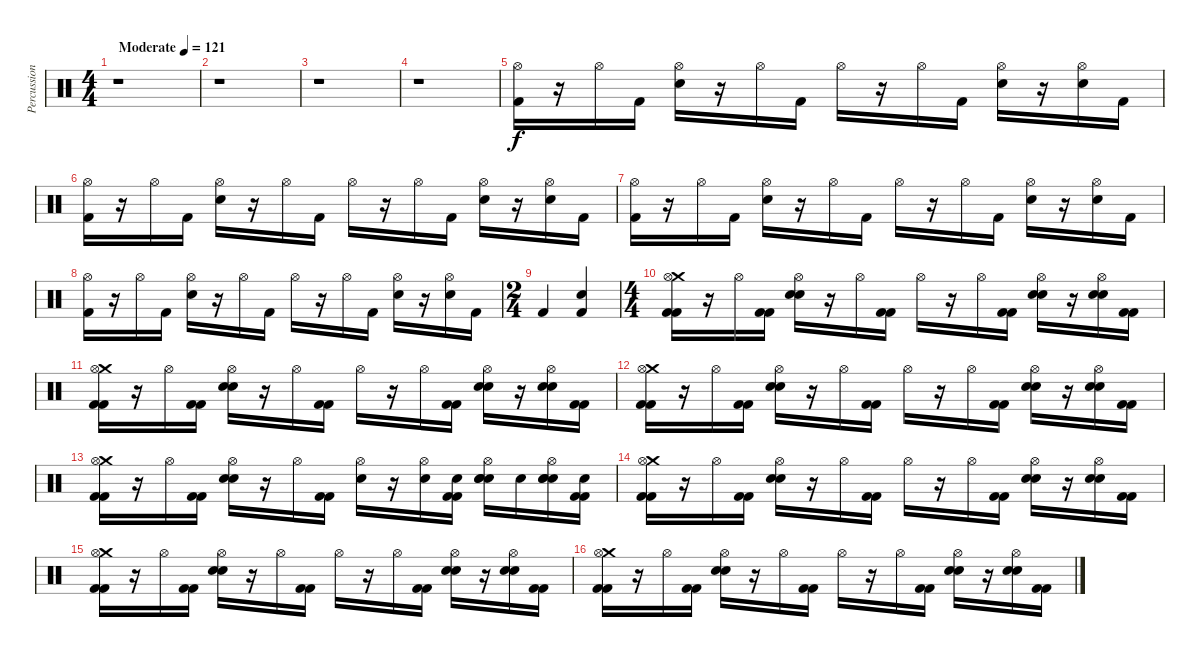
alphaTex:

\track ("Percussion- Mike" "Percussion") {instrument percussion}
\staff {score}
\articulation defaults
\ts (4 4)
\tempo (121 "Moderate")
\clef neutral
\ks c
r.1{dy f} |
r.1 |
r.1 |
r.1 |
("Kick (hit) 2" "Hi-Hat (open)").16 r.16 "Hi-Hat (open)".16 "Kick (hit) 2".16 ("Snare (hit) 2" "Hi-Hat (open)").16 r.16 "Hi-Hat (open)".16 "Kick (hit) 2".16 "Hi-Hat (open)".16 r.16 "Hi-Hat (open)".16 "Kick (hit) 2".16 ("Snare (hit) 2" "Hi-Hat (open)").16 r.16 ("Electric Snare (hit)" "Hi-Hat (open)").16 "Kick (hit) 2".16 |
("Kick (hit) 2" "Hi-Hat (open)").16 r.16 "Hi-Hat (open)".16 "Kick (hit) 2".16 ("Snare (hit) 2" "Hi-Hat (open)").16 r.16 "Hi-Hat (open)".16 "Kick (hit) 2".16 "Hi-Hat (open)".16 r.16 "Hi-Hat (open)".16 "Kick (hit) 2".16 ("Snare (hit) 2" "Hi-Hat (open)").16 r.16 ("Electric Snare (hit)" "Hi-Hat (open)").16 "Kick (hit) 2".16 |
("Kick (hit) 2" "Hi-Hat (open)").16 r.16 "Hi-Hat (open)".16 "Kick (hit) 2".16 ("Snare (hit) 2" "Hi-Hat (open)").16 r.16 "Hi-Hat (open)".16 "Kick (hit) 2".16 "Hi-Hat (open)".16 r.16 "Hi-Hat (open)".16 "Kick (hit) 2".16 ("Snare (hit) 2" "Hi-Hat (open)").16 r.16 ("Electric Snare (hit)" "Hi-Hat (open)").16 "Kick (hit) 2".16 |
("Kick (hit) 2" "Hi-Hat (open)").16 r.16 "Hi-Hat (open)".16 "Kick (hit) 2".16 ("Snare (hit) 2" "Hi-Hat (open)").16 r.16 "Hi-Hat (open)".16 "Kick (hit) 2".16 "Hi-Hat (open)".16 r.16 "Hi-Hat (open)".16 "Kick (hit) 2".16 ("Snare (hit) 2" "Hi-Hat (open)").16 r.16 ("Electric Snare (hit)" "Hi-Hat (open)").16 "Kick (hit) 2".16 |
\ts (2 4)
"Kick (hit) 2".4 ("Snare (hit) 2" "Kick (hit) 2").4 |
\ts (4 4)
("Crash medium (hit)" "Kick (hit) 2" "Kick (hit) 2" "Hi-Hat (open)").16 r.16 "Hi-Hat (open)".16 ("Kick (hit) 2" "Kick (hit) 2").16 ("Snare (hit) 2" "Snare (hit) 2" "Hi-Hat (open)").16 r.16 "Hi-Hat (open)".16 ("Kick (hit) 2" "Kick (hit) 2").16 "Hi-Hat (open)".16 r.16 "Hi-Hat (open)".16 ("Kick (hit) 2" "Kick (hit) 2").16 ("Snare (hit) 2" "Snare (hit) 2" "Hi-Hat (open)").16 r.16 ("Electric Snare (hit)" "Electric Snare (hit)" "Hi-Hat (open)").16 ("Kick (hit) 2" "Kick (hit) 2").16 |
("Crash medium (hit)" "Kick (hit) 2" "Kick (hit) 2" "Hi-Hat (open)").16 r.16 "Hi-Hat (open)".16 ("Kick (hit) 2" "Kick (hit) 2").16 ("Snare (hit) 2" "Snare (hit) 2" "Hi-Hat (open)").16 r.16 "Hi-Hat (open)".16 ("Kick (hit) 2" "Kick (hit) 2").16 "Hi-Hat (open)".16 r.16 "Hi-Hat (open)".16 ("Kick (hit) 2" "Kick (hit) 2").16 ("Snare (hit) 2" "Snare (hit) 2" "Hi-Hat (open)").16 r.16 ("Electric Snare (hit)" "Electric Snare (hit)" "Hi-Hat (open)").16 ("Kick (hit) 2" "Kick (hit) 2").16 |
("Crash medium (hit)" "Kick (hit) 2" "Kick (hit) 2" "Hi-Hat (open)").16 r.16 "Hi-Hat (open)".16 ("Kick (hit) 2" "Kick (hit) 2").16 ("Snare (hit) 2" "Snare (hit) 2" "Hi-Hat (open)").16 r.16 "Hi-Hat (open)".16 ("Kick (hit) 2" "Kick (hit) 2").16 "Hi-Hat (open)".16 r.16 "Hi-Hat (open)".16 ("Kick (hit) 2" "Kick (hit) 2").16 ("Snare (hit) 2" "Snare (hit) 2" "Hi-Hat (open)").16 r.16 ("Electric Snare (hit)" "Electric Snare (hit)" "Hi-Hat (open)").16 ("Kick (hit) 2" "Kick (hit) 2").16 |
("Crash medium (hit)" "Kick (hit) 2" "Kick (hit) 2" "Hi-Hat (open)").16 r.16 "Hi-Hat (open)".16 ("Kick (hit) 2" "Kick (hit) 2").16 ("Snare (hit) 2" "Snare (hit) 2" "Hi-Hat (open)").16 r.16 "Hi-Hat (open)".16 ("Kick (hit) 2" "Kick (hit) 2").16 ("Electric Snare (hit)" "Hi-Hat (open)").16 r.16 ("Electric Snare (hit)" "Hi-Hat (open)").16 ("Electric Snare (hit)" "Kick (hit) 2" "Kick (hit) 2").16 ("Electric Snare (hit)" "Snare (hit) 2" "Snare (hit) 2" "Hi-Hat (open)").16 "Electric Snare (hit)".16 ("Electric Snare (hit)" "Electric Snare (hit)" "Electric Snare (hit)" "Hi-Hat (open)").16 ("Electric Snare (hit)" "Kick (hit) 2" "Kick (hit) 2").16 |
("Crash medium (hit)" "Kick (hit) 2" "Kick (hit) 2" "Hi-Hat (open)").16 r.16 "Hi-Hat (open)".16 ("Kick (hit) 2" "Kick (hit) 2").16 ("Snare (hit) 2" "Snare (hit) 2" "Hi-Hat (open)").16 r.16 "Hi-Hat (open)".16 ("Kick (hit) 2" "Kick (hit) 2").16 "Hi-Hat (open)".16 r.16 "Hi-Hat (open)".16 ("Kick (hit) 2" "Kick (hit) 2").16 ("Snare (hit) 2" "Snare (hit) 2" "Hi-Hat (open)").16 r.16 ("Electric Snare (hit)" "Electric Snare (hit)" "Hi-Hat (open)").16 ("Kick (hit) 2" "Kick (hit) 2").16 |
("Crash medium (hit)" "Kick (hit) 2" "Kick (hit) 2" "Hi-Hat (open)").16 r.16 "Hi-Hat (open)".16 ("Kick (hit) 2" "Kick (hit) 2").16 ("Snare (hit) 2" "Snare (hit) 2" "Hi-Hat (open)").16 r.16 "Hi-Hat (open)".16 ("Kick (hit) 2" "Kick (hit) 2").16 "Hi-Hat (open)".16 r.16 "Hi-Hat (open)".16 ("Kick (hit) 2" "Kick (hit) 2").16 ("Snare (hit) 2" "Snare (hit) 2" "Hi-Hat (open)").16 r.16 ("Electric Snare (hit)" "Electric Snare (hit)" "Hi-Hat (open)").16 ("Kick (hit) 2" "Kick (hit) 2").16 |
("Crash medium (hit)" "Kick (hit) 2" "Kick (hit) 2" "Hi-Hat (open)").16 r.16 "Hi-Hat (open)".16 ("Kick (hit) 2" "Kick (hit) 2").16 ("Snare (hit) 2" "Snare (hit) 2" "Hi-Hat (open)").16 r.16 "Hi-Hat (open)".16 ("Kick (hit) 2" "Kick (hit) 2").16 "Hi-Hat (open)".16 r.16 "Hi-Hat (open)".16 ("Kick (hit) 2" "Kick (hit) 2").16 ("Snare (hit) 2" "Snare (hit) 2" "Hi-Hat (open)").16 r.16 ("Electric Snare (hit)" "Electric Snare (hit)" "Hi-Hat (open)").16 ("Kick (hit) 2" "Kick (hit) 2").16
